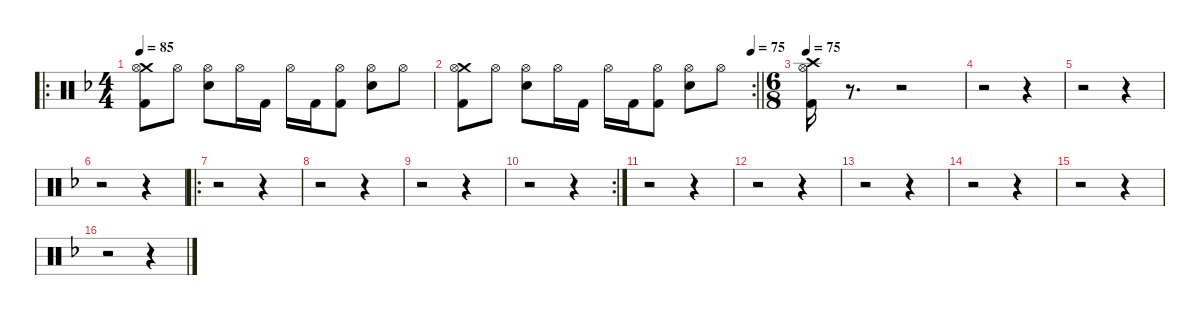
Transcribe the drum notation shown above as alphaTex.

\defaultSystemsLayout 4
\hideDynamics
\bracketExtendMode nobrackets
\singleTrackTrackNamePolicy hidden
\multiTrackTrackNamePolicy hidden
\firstSystemTrackNameMode fullname
\firstSystemTrackNameOrientation horizontal
\otherSystemsTrackNameOrientation horizontal
\track ("Martin Lopez - Drums" "drm.") {instrument percussion}
\staff {score}
\articulation defaults
\ro
\ts (4 4)
\tempo 85
\clef neutral
\ks f
("Crash medium (hit)"{acc forcenatural} "Hi-Hat (open)"{acc forcenatural} "Kick (hit) 2"{acc forcenatural}).8{dy f beam Down} "Hi-Hat (open)"{acc forcenatural}.8{beam Down} ("Hi-Hat (open)"{acc forcenatural} "Snare (hit) 2"{acc forcenatural}).8{beam Down} "Hi-Hat (open)"{acc forcenatural}.16{beam Down} "Kick (hit) 2"{acc forcenatural}.16{beam Down} "Hi-Hat (open)"{acc forcenatural}.16{beam Down} "Kick (hit) 2"{acc forcenatural}.16{beam Down} ("Hi-Hat (open)"{acc forcenatural} "Kick (hit) 2"{acc forcenatural}).8{beam Down} ("Hi-Hat (open)"{acc forcenatural} "Snare (hit) 2"{acc forcenatural}).8{beam Down} "Hi-Hat (open)"{acc forcenatural}.8{beam Down} |
\rc 2
\tempo (75 1)
\barLineRight lightlight
("Crash medium (hit)"{acc forcenatural} "Hi-Hat (open)"{acc forcenatural} "Kick (hit) 2"{acc forcenatural}).8{beam Down} "Hi-Hat (open)"{acc forcenatural}.8{beam Down} ("Hi-Hat (open)"{acc forcenatural} "Snare (hit) 2"{acc forcenatural}).8{beam Down} "Hi-Hat (open)"{acc forcenatural}.16{beam Down} "Kick (hit) 2"{acc forcenatural}.16{beam Down} "Hi-Hat (open)"{acc forcenatural}.16{beam Down} "Kick (hit) 2"{acc forcenatural}.16{beam Down} ("Hi-Hat (open)"{acc forcenatural} "Kick (hit) 2"{acc forcenatural}).8{beam Down} ("Hi-Hat (open)"{acc forcenatural} "Snare (hit) 2"{acc forcenatural}).8{beam Down} "Hi-Hat (open)"{acc forcenatural}.8{beam Down} |
\ts (6 8)
\beaming (8 2 2 2 2)
\tempo 75
("Crash high (hit)"{acc forcenatural} "Hi-Hat (open)"{acc forcenatural} "Kick (hit) 2"{acc forcenatural}).16{beam Down} r.8{d beam Down} r.2{beam Down} |
r.2{beam Down} r.4{beam Down} |
r.2{beam Down} r.4{beam Down} |
r.2{beam Down} r.4{beam Down} |
\ro
r.2{beam Down} r.4{beam Down} |
r.2{beam Down} r.4{beam Down} |
r.2{beam Down} r.4{beam Down} |
\rc 2
r.2{beam Down} r.4{beam Down} |
r.2{beam Down} r.4{beam Down} |
r.2{beam Down} r.4{beam Down} |
r.2{beam Down} r.4{beam Down} |
r.2{beam Down} r.4{beam Down} |
r.2{beam Down} r.4{beam Down} |
r.2{beam Down} r.4{beam Down}
